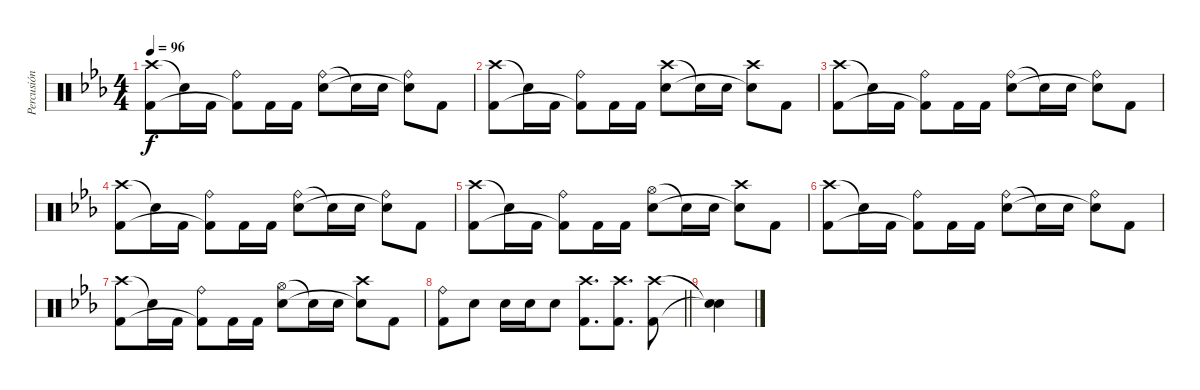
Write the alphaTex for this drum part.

\track ("Percusión" "Percusión") {instrument percussion}
\staff {score}
\articulation defaults
\ts (4 4)
\tempo 96
\clef neutral
\ks eb
("Crash high (hit)" "Kick (hit) 2").8{dy f} "Snare (hit)"{t}.16 "Kick (hit) 2".16 ("Ride (bell)" "Kick (hit) 2"{t}).8 "Kick (hit) 2".16 "Kick (hit) 2".16 ("Ride (bell)" "Electric Snare (hit)").8 "Snare (hit)"{t}.16 "Electric Snare (hit)".16 ("Ride (bell)" "Snare (hit)"{t}).8 "Kick (hit) 2".8 |
("Crash high (hit)" "Kick (hit) 2").8 "Snare (hit)"{t}.16 "Kick (hit) 2".16 ("Ride (bell)" "Kick (hit) 2"{t}).8 "Kick (hit) 2".16 "Kick (hit) 2".16 ("Crash high (hit)" "Electric Snare (hit)").8 "Snare (hit)"{t}.16 "Electric Snare (hit)".16 ("Crash high (hit)" "Snare (hit)"{t}).8 "Kick (hit) 2".8 |
("Crash high (hit)" "Kick (hit) 2").8 "Snare (hit)"{t}.16 "Kick (hit) 2".16 ("Ride (bell)" "Kick (hit) 2"{t}).8 "Kick (hit) 2".16 "Kick (hit) 2".16 ("Ride (bell)" "Electric Snare (hit)").8 "Snare (hit)"{t}.16 "Electric Snare (hit)".16 ("Ride (bell)" "Snare (hit)"{t}).8 "Kick (hit) 2".8 |
("Crash high (hit)" "Kick (hit) 2").8 "Snare (hit)"{t}.16 "Kick (hit) 2".16 ("Ride (bell)" "Kick (hit) 2"{t}).8 "Kick (hit) 2".16 "Kick (hit) 2".16 ("Ride (bell)" "Electric Snare (hit)").8 "Snare (hit)"{t}.16 "Electric Snare (hit)".16 ("Ride (bell)" "Snare (hit)"{t}).8 "Kick (hit) 2".8 |
("Crash high (hit)" "Kick (hit) 2").8 "Snare (hit)"{t}.16 "Kick (hit) 2".16 ("Ride (bell)" "Kick (hit) 2"{t}).8 "Kick (hit) 2".16 "Kick (hit) 2".16 ("Hi-Hat (open)" "Electric Snare (hit)").8 "Snare (hit)"{t}.16 "Electric Snare (hit)".16 ("Crash high (hit)" "Snare (hit)"{t}).8 "Kick (hit) 2".8 |
("Crash high (hit)" "Kick (hit) 2").8 "Snare (hit)"{t}.16 "Kick (hit) 2".16 ("Ride (bell)" "Kick (hit) 2"{t}).8 "Kick (hit) 2".16 "Kick (hit) 2".16 ("Ride (bell)" "Electric Snare (hit)").8 "Snare (hit)"{t}.16 "Electric Snare (hit)".16 ("Ride (bell)" "Snare (hit)"{t}).8 "Kick (hit) 2".8 |
("Crash high (hit)" "Kick (hit) 2").8 "Snare (hit)"{t}.16 "Kick (hit) 2".16 ("Ride (bell)" "Kick (hit) 2"{t}).8 "Kick (hit) 2".16 "Kick (hit) 2".16 ("Hi-Hat (open)" "Electric Snare (hit)").8 "Snare (hit)"{t}.16 "Electric Snare (hit)".16 ("Crash high (hit)" "Snare (hit)"{t}).8 "Kick (hit) 2".8 |
\barLineRight lightlight
("Ride (bell)" "Kick (hit) 2").8 "Electric Snare (hit)".8 "Electric Snare (hit)".16 "Electric Snare (hit)".16 "Electric Snare (hit)".8 ("Crash high (hit)" "Kick (hit) 2").8{d} ("Crash high (hit)" "Kick (hit) 2").8{d} ("Crash high (hit)" "Kick (hit) 2").8 |
("Snare (hit)"{t} "Snare (hit)"{t}).4
